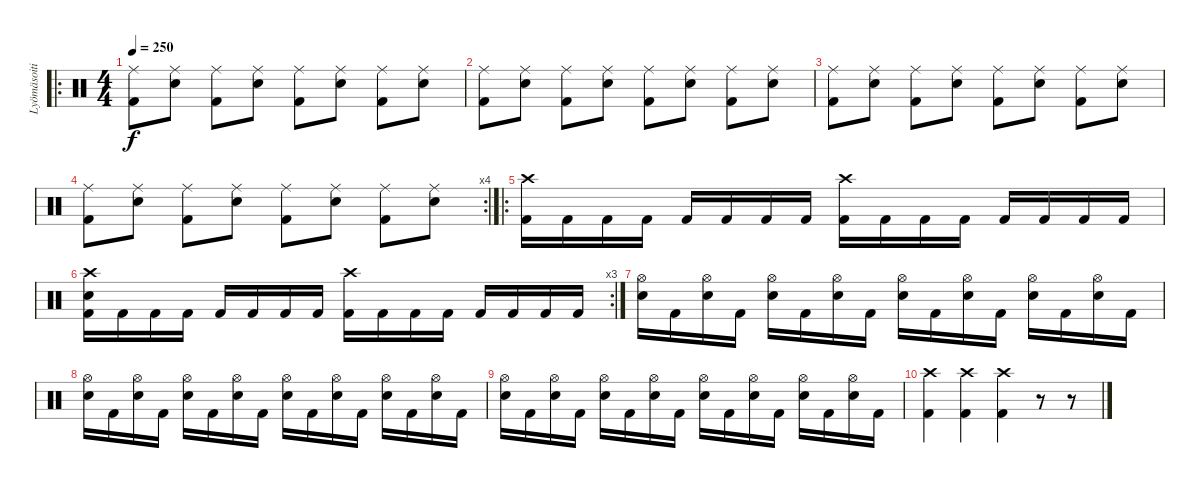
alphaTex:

\track ("Lyömäsoitin" "Lyömäsoiti") {instrument percussion}
\staff {score}
\articulation defaults
\ro
\ts (4 4)
\tempo 250
\clef neutral
\ks c
("Ride (middle)" "Kick (hit) 2").8{dy f} ("Ride (middle)" "Electric Snare (hit)").8 ("Ride (middle)" "Kick (hit) 2").8 ("Ride (middle)" "Electric Snare (hit)").8 ("Ride (middle)" "Kick (hit) 2").8 ("Ride (middle)" "Electric Snare (hit)").8 ("Ride (middle)" "Kick (hit) 2").8 ("Ride (middle)" "Electric Snare (hit)").8 |
("Ride (middle)" "Kick (hit) 2").8 ("Ride (middle)" "Electric Snare (hit)").8 ("Ride (middle)" "Kick (hit) 2").8 ("Ride (middle)" "Electric Snare (hit)").8 ("Ride (middle)" "Kick (hit) 2").8 ("Ride (middle)" "Electric Snare (hit)").8 ("Ride (middle)" "Kick (hit) 2").8 ("Ride (middle)" "Electric Snare (hit)").8 |
("Ride (middle)" "Kick (hit) 2").8 ("Ride (middle)" "Electric Snare (hit)").8 ("Ride (middle)" "Kick (hit) 2").8 ("Ride (middle)" "Electric Snare (hit)").8 ("Ride (middle)" "Kick (hit) 2").8 ("Ride (middle)" "Electric Snare (hit)").8 ("Ride (middle)" "Kick (hit) 2").8 ("Ride (middle)" "Electric Snare (hit)").8 |
\rc 4
("Ride (middle)" "Kick (hit) 2").8 ("Ride (middle)" "Electric Snare (hit)").8 ("Ride (middle)" "Kick (hit) 2").8 ("Ride (middle)" "Electric Snare (hit)").8 ("Ride (middle)" "Kick (hit) 2").8 ("Ride (middle)" "Electric Snare (hit)").8 ("Ride (middle)" "Kick (hit) 2").8 ("Ride (middle)" "Electric Snare (hit)").8 |
\ro
("Crash high (hit)" "Kick (hit) 2").16 "Kick (hit) 2".16 "Kick (hit) 2".16 "Kick (hit) 2".16 "Kick (hit) 2".16 "Kick (hit) 2".16 "Kick (hit) 2".16 "Kick (hit) 2".16 ("Crash high (hit)" "Kick (hit) 2").16 "Kick (hit) 2".16 "Kick (hit) 2".16 "Kick (hit) 2".16 "Kick (hit) 2".16 "Kick (hit) 2".16 "Kick (hit) 2".16 "Kick (hit) 2".16 |
\rc 3
("Crash high (hit)" "Electric Snare (hit)" "Kick (hit) 2").16 "Kick (hit) 2".16 "Kick (hit) 2".16 "Kick (hit) 2".16 "Kick (hit) 2".16 "Kick (hit) 2".16 "Kick (hit) 2".16 "Kick (hit) 2".16 ("Crash high (hit)" "Kick (hit) 2").16 "Kick (hit) 2".16 "Kick (hit) 2".16 "Kick (hit) 2".16 "Kick (hit) 2".16 "Kick (hit) 2".16 "Kick (hit) 2".16 "Kick (hit) 2".16 |
("Hi-Hat (open)" "Electric Snare (hit)").16 "Kick (hit) 2".16 ("Hi-Hat (open)" "Electric Snare (hit)").16 "Kick (hit) 2".16 ("Hi-Hat (open)" "Electric Snare (hit)").16 "Kick (hit) 2".16 ("Hi-Hat (open)" "Electric Snare (hit)").16 "Kick (hit) 2".16 ("Hi-Hat (open)" "Electric Snare (hit)").16 "Kick (hit) 2".16 ("Hi-Hat (open)" "Electric Snare (hit)").16 "Kick (hit) 2".16 ("Hi-Hat (open)" "Electric Snare (hit)").16 "Kick (hit) 2".16 ("Hi-Hat (open)" "Electric Snare (hit)").16 "Kick (hit) 2".16 |
("Hi-Hat (open)" "Electric Snare (hit)").16 "Kick (hit) 2".16 ("Hi-Hat (open)" "Electric Snare (hit)").16 "Kick (hit) 2".16 ("Hi-Hat (open)" "Electric Snare (hit)").16 "Kick (hit) 2".16 ("Hi-Hat (open)" "Electric Snare (hit)").16 "Kick (hit) 2".16 ("Hi-Hat (open)" "Electric Snare (hit)").16 "Kick (hit) 2".16 ("Hi-Hat (open)" "Electric Snare (hit)").16 "Kick (hit) 2".16 ("Hi-Hat (open)" "Electric Snare (hit)").16 "Kick (hit) 2".16 ("Hi-Hat (open)" "Electric Snare (hit)").16 "Kick (hit) 2".16 |
("Hi-Hat (open)" "Electric Snare (hit)").16 "Kick (hit) 2".16 ("Hi-Hat (open)" "Electric Snare (hit)").16 "Kick (hit) 2".16 ("Hi-Hat (open)" "Electric Snare (hit)").16 "Kick (hit) 2".16 ("Hi-Hat (open)" "Electric Snare (hit)").16 "Kick (hit) 2".16 ("Hi-Hat (open)" "Electric Snare (hit)").16 "Kick (hit) 2".16 ("Hi-Hat (open)" "Electric Snare (hit)").16 "Kick (hit) 2".16 ("Hi-Hat (open)" "Electric Snare (hit)").16 "Kick (hit) 2".16 ("Hi-Hat (open)" "Electric Snare (hit)").16 "Kick (hit) 2".16 |
("Crash high (hit)" "Kick (hit) 2").4 ("Crash high (hit)" "Kick (hit) 2").4 ("Crash high (hit)" "Kick (hit) 2").4 r.8 r.8
